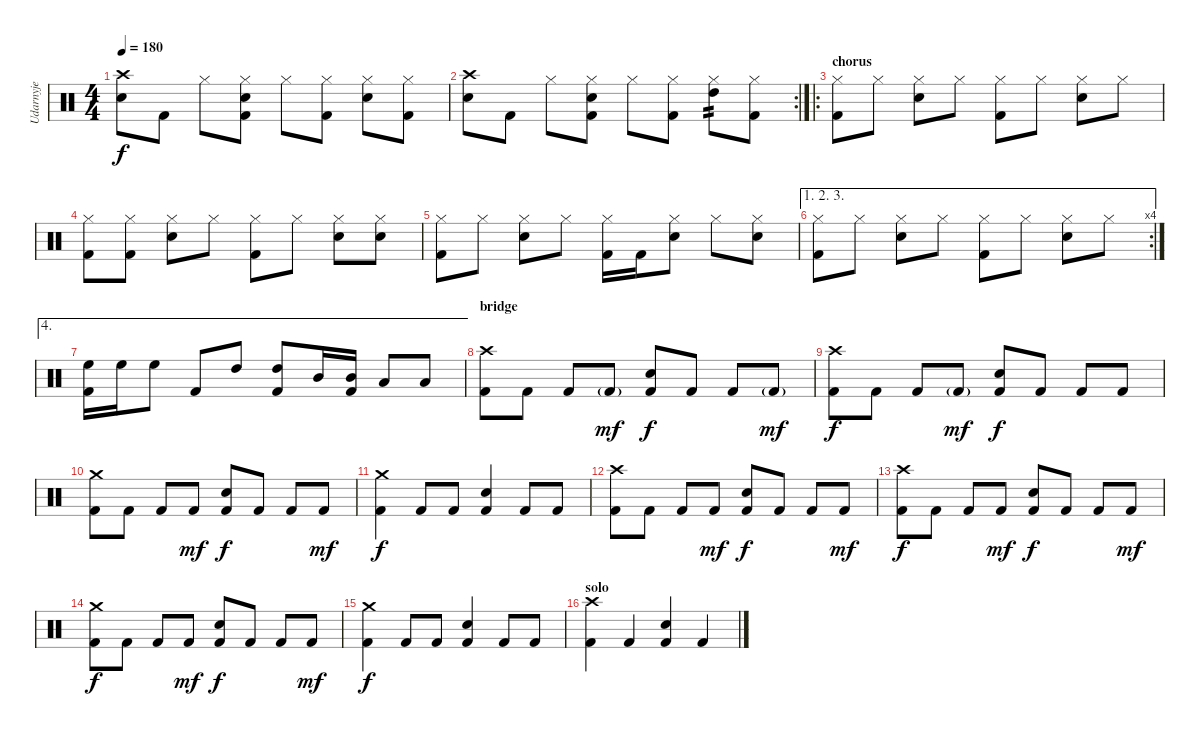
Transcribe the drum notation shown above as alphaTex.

\track ("Udarnyje" "Udarnyje") {instrument percussion}
\staff {score}
\articulation defaults
\ts (4 4)
\tempo 180
\clef neutral
\ks c
("Crash high (hit)" "Electric Snare (hit)").8{dy f} "Kick (hit) 2".8 "Hi-Hat (closed)".8 ("Hi-Hat (closed)" "Electric Snare (hit)" "Kick (hit) 2").8 "Hi-Hat (closed)".8 ("Hi-Hat (closed)" "Kick (hit) 2").8 ("Hi-Hat (closed)" "Electric Snare (hit)").8 ("Hi-Hat (closed)" "Kick (hit) 2").8 |
\rc 2
("Crash high (hit)" "Electric Snare (hit)").8 "Kick (hit) 2".8 "Hi-Hat (closed)".8 ("Hi-Hat (closed)" "Electric Snare (hit)" "Kick (hit) 2").8 "Hi-Hat (closed)".8 ("Hi-Hat (closed)" "Kick (hit) 2").8 ("Hi-Hat (closed)" "High Tom (hit)").8{tp 2} ("Hi-Hat (closed)" "Kick (hit) 2").8 |
\ro
\section ("" "chorus")
("Hi-Hat (closed)" "Kick (hit) 2").8 "Hi-Hat (closed)".8 ("Hi-Hat (closed)" "Electric Snare (hit)").8 "Hi-Hat (closed)".8 ("Hi-Hat (closed)" "Kick (hit) 2").8 "Hi-Hat (closed)".8 ("Hi-Hat (closed)" "Electric Snare (hit)").8 "Hi-Hat (closed)".8 |
("Hi-Hat (closed)" "Kick (hit) 2").8 ("Hi-Hat (closed)" "Kick (hit) 2").8 ("Hi-Hat (closed)" "Electric Snare (hit)").8 "Hi-Hat (closed)".8 ("Hi-Hat (closed)" "Kick (hit) 2").8 "Hi-Hat (closed)".8 ("Hi-Hat (closed)" "Electric Snare (hit)").8 ("Hi-Hat (closed)" "Electric Snare (hit)").8 |
("Hi-Hat (closed)" "Kick (hit) 2").8 "Hi-Hat (closed)".8 ("Hi-Hat (closed)" "Electric Snare (hit)").8 "Hi-Hat (closed)".8 ("Hi-Hat (closed)" "Kick (hit) 2").16 "Kick (hit) 2".16 ("Hi-Hat (closed)" "Electric Snare (hit)").8 "Hi-Hat (closed)".8 ("Hi-Hat (closed)" "Electric Snare (hit)").8 |
\ae (1 2 3)
\rc 4
("Hi-Hat (closed)" "Kick (hit) 2").8 "Hi-Hat (closed)".8 ("Hi-Hat (closed)" "Electric Snare (hit)").8 "Hi-Hat (closed)".8 ("Hi-Hat (closed)" "Kick (hit) 2").8 "Hi-Hat (closed)".8 ("Hi-Hat (closed)" "Electric Snare (hit)").8 "Hi-Hat (closed)".8 |
\ae 4
("High Floor Tom (hit)" "Kick (hit) 2").16 "High Floor Tom (hit)".16 "High Floor Tom (hit)".8 "Kick (hit) 2".8 "High Tom (hit)".8 ("High Tom (hit)" "Kick (hit) 2").8 "Mid Tom (hit)".16 ("Mid Tom (hit)" "Kick (hit) 2").16 "Low Tom (hit)".8 "Low Tom (hit)".8 |
\section ("" "bridge")
("Crash high (hit)" "Kick (hit) 2").8 "Kick (hit) 2".8 "Kick (hit) 2".8 "Kick (hit) 2"{g}.8{dy mf} ("Electric Snare (hit)" "Kick (hit) 2").8{dy f} "Kick (hit) 2".8 "Kick (hit) 2".8 "Kick (hit) 2"{g}.8{dy mf} |
("Crash high (hit)" "Kick (hit) 2").8{dy f} "Kick (hit) 2".8 "Kick (hit) 2".8 "Kick (hit) 2"{g}.8{dy mf} ("Electric Snare (hit)" "Kick (hit) 2").8{dy f} "Kick (hit) 2".8 "Kick (hit) 2".8 "Kick (hit) 2".8 |
("Crash medium (hit)" "Kick (hit) 2").8 "Kick (hit) 2".8 "Kick (hit) 2".8 "Kick (hit) 2".8{dy mf} ("Electric Snare (hit)" "Kick (hit) 2").8{dy f} "Kick (hit) 2".8 "Kick (hit) 2".8 "Kick (hit) 2".8{dy mf} |
("Crash medium (hit)" "Kick (hit) 2").4{dy f} "Kick (hit) 2".8 "Kick (hit) 2".8 ("Electric Snare (hit)" "Kick (hit) 2").4 "Kick (hit) 2".8 "Kick (hit) 2".8 |
("Crash high (hit)" "Kick (hit) 2").8 "Kick (hit) 2".8 "Kick (hit) 2".8 "Kick (hit) 2".8{dy mf} ("Electric Snare (hit)" "Kick (hit) 2").8{dy f} "Kick (hit) 2".8 "Kick (hit) 2".8 "Kick (hit) 2".8{dy mf} |
("Crash high (hit)" "Kick (hit) 2").8{dy f} "Kick (hit) 2".8 "Kick (hit) 2".8 "Kick (hit) 2".8{dy mf} ("Electric Snare (hit)" "Kick (hit) 2").8{dy f} "Kick (hit) 2".8 "Kick (hit) 2".8 "Kick (hit) 2".8{dy mf} |
("Crash medium (hit)" "Kick (hit) 2").8{dy f} "Kick (hit) 2".8 "Kick (hit) 2".8 "Kick (hit) 2".8{dy mf} ("Electric Snare (hit)" "Kick (hit) 2").8{dy f} "Kick (hit) 2".8 "Kick (hit) 2".8 "Kick (hit) 2".8{dy mf} |
("Crash medium (hit)" "Kick (hit) 2").4{dy f} "Kick (hit) 2".8 "Kick (hit) 2".8 ("Electric Snare (hit)" "Kick (hit) 2").4 "Kick (hit) 2".8 "Kick (hit) 2".8 |
\section ("" "solo")
("Crash high (hit)" "Kick (hit) 2").4 "Kick (hit) 2".4 ("Electric Snare (hit)" "Kick (hit) 2").4 "Kick (hit) 2".4
